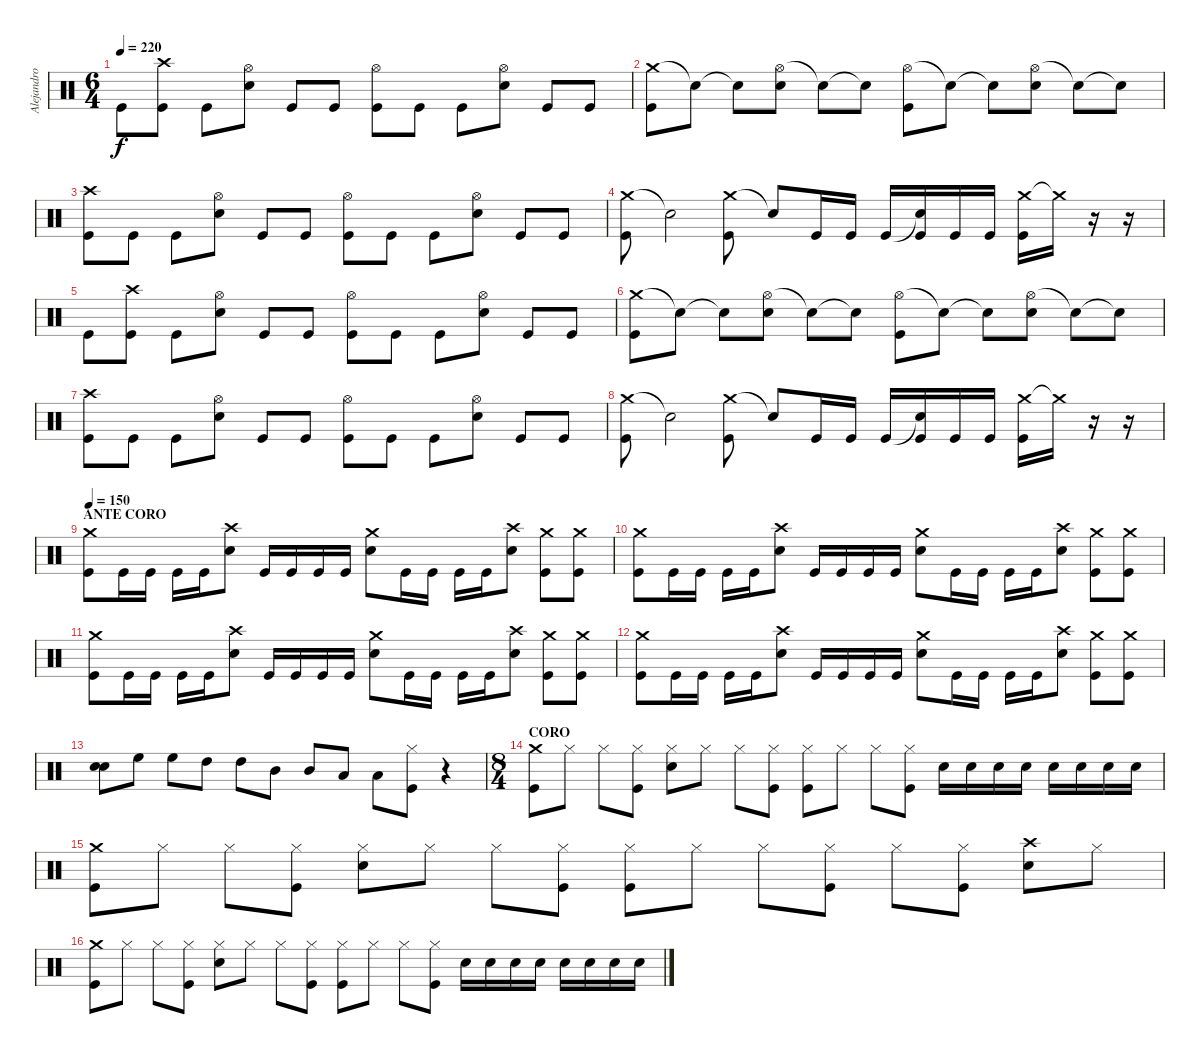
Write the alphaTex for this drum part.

\track ("Alejandro M. (Bateria)" "Alejandro ") {instrument percussion}
\staff {score}
\articulation defaults
\ts (6 4)
\tempo 220
\clef neutral
\ks c "Kick (hit)".8{dy f}
("Crash high (hit)" "Kick (hit)").8 "Kick (hit)".8 ("Hi-Hat (open)" "Snare (hit) 2").8 "Kick (hit)".8 "Kick (hit)".8 ("Hi-Hat (open)" "Kick (hit)").8 "Kick (hit)".8 "Kick (hit)".8 ("Hi-Hat (open)" "Snare (hit) 2").8 "Kick (hit)".8 "Kick (hit)".8 |
("Crash medium (hit)" "Kick (hit)").8 "Snare (hit)"{t}.8 "Snare (hit)"{t}.8 ("Hi-Hat (open)" "Snare (hit) 2").8 "Snare (hit)"{t}.8 "Snare (hit)"{t}.8 ("Hi-Hat (open)" "Kick (hit)").8 "Snare (hit)"{t}.8 "Snare (hit)"{t}.8 ("Hi-Hat (open)" "Snare (hit) 2").8 "Snare (hit)"{t}.8 "Snare (hit)"{t}.8 |
("Crash high (hit)" "Kick (hit)").8 "Kick (hit)".8 "Kick (hit)".8 ("Hi-Hat (open)" "Snare (hit) 2").8 "Kick (hit)".8 "Kick (hit)".8 ("Hi-Hat (open)" "Kick (hit)").8 "Kick (hit)".8 "Kick (hit)".8 ("Hi-Hat (open)" "Snare (hit) 2").8 "Kick (hit)".8 "Kick (hit)".8 |
("Crash medium (hit)" "Kick (hit)").8 "Snare (hit)"{t}.2 ("Crash medium (hit)" "Kick (hit)").8 "Snare (hit)"{t}.8 "Kick (hit)".16 "Kick (hit)".16 "Kick (hit)".16 ("Snare (hit)"{t} "Kick (hit)").16 "Kick (hit)".16 "Kick (hit)".16 ("Crash medium (hit)" "Kick (hit)").16 "Crash medium (hit)"{t}.16 r.16 r.16 |
"Kick (hit)".8 ("Crash high (hit)" "Kick (hit)").8 "Kick (hit)".8 ("Hi-Hat (open)" "Snare (hit) 2").8 "Kick (hit)".8 "Kick (hit)".8 ("Hi-Hat (open)" "Kick (hit)").8 "Kick (hit)".8 "Kick (hit)".8 ("Hi-Hat (open)" "Snare (hit) 2").8 "Kick (hit)".8 "Kick (hit)".8 |
("Crash medium (hit)" "Kick (hit)").8 "Snare (hit)"{t}.8 "Snare (hit)"{t}.8 ("Hi-Hat (open)" "Snare (hit) 2").8 "Snare (hit)"{t}.8 "Snare (hit)"{t}.8 ("Hi-Hat (open)" "Kick (hit)").8 "Snare (hit)"{t}.8 "Snare (hit)"{t}.8 ("Hi-Hat (open)" "Snare (hit) 2").8 "Snare (hit)"{t}.8 "Snare (hit)"{t}.8 |
("Crash high (hit)" "Kick (hit)").8 "Kick (hit)".8 "Kick (hit)".8 ("Hi-Hat (open)" "Snare (hit) 2").8 "Kick (hit)".8 "Kick (hit)".8 ("Hi-Hat (open)" "Kick (hit)").8 "Kick (hit)".8 "Kick (hit)".8 ("Hi-Hat (open)" "Snare (hit) 2").8 "Kick (hit)".8 "Kick (hit)".8 |
("Crash medium (hit)" "Kick (hit)").8 "Snare (hit)"{t}.2 ("Crash medium (hit)" "Kick (hit)").8 "Snare (hit)"{t}.8 "Kick (hit)".16 "Kick (hit)".16 "Kick (hit)".16 ("Snare (hit)"{t} "Kick (hit)").16 "Kick (hit)".16 "Kick (hit)".16 ("Crash medium (hit)" "Kick (hit)").16 "Crash medium (hit)"{t}.16 r.16 r.16 |
\section ("" "ANTE CORO")
\tempo 150
("Crash medium (hit)" "Kick (hit)").8 "Kick (hit)".16 "Kick (hit)".16 "Kick (hit)".16 "Kick (hit)".16 ("Crash high (hit)" "Snare (hit) 2").8 "Kick (hit)".16 "Kick (hit)".16 "Kick (hit)".16 "Kick (hit)".16 ("Crash medium (hit)" "Snare (hit) 2").8 "Kick (hit)".16 "Kick (hit)".16 "Kick (hit)".16 "Kick (hit)".16 ("Crash high (hit)" "Snare (hit) 2").8 ("Crash medium (hit)" "Kick (hit)").8 ("Crash medium (hit)" "Kick (hit)").8 |
("Crash medium (hit)" "Kick (hit)").8 "Kick (hit)".16 "Kick (hit)".16 "Kick (hit)".16 "Kick (hit)".16 ("Crash high (hit)" "Snare (hit) 2").8 "Kick (hit)".16 "Kick (hit)".16 "Kick (hit)".16 "Kick (hit)".16 ("Crash medium (hit)" "Snare (hit) 2").8 "Kick (hit)".16 "Kick (hit)".16 "Kick (hit)".16 "Kick (hit)".16 ("Crash high (hit)" "Snare (hit) 2").8 ("Crash medium (hit)" "Kick (hit)").8 ("Crash medium (hit)" "Kick (hit)").8 |
("Crash medium (hit)" "Kick (hit)").8 "Kick (hit)".16 "Kick (hit)".16 "Kick (hit)".16 "Kick (hit)".16 ("Crash high (hit)" "Snare (hit) 2").8 "Kick (hit)".16 "Kick (hit)".16 "Kick (hit)".16 "Kick (hit)".16 ("Crash medium (hit)" "Snare (hit) 2").8 "Kick (hit)".16 "Kick (hit)".16 "Kick (hit)".16 "Kick (hit)".16 ("Crash high (hit)" "Snare (hit) 2").8 ("Crash medium (hit)" "Kick (hit)").8 ("Crash medium (hit)" "Kick (hit)").8 |
("Crash medium (hit)" "Kick (hit)").8 "Kick (hit)".16 "Kick (hit)".16 "Kick (hit)".16 "Kick (hit)".16 ("Crash high (hit)" "Snare (hit) 2").8 "Kick (hit)".16 "Kick (hit)".16 "Kick (hit)".16 "Kick (hit)".16 ("Crash medium (hit)" "Snare (hit) 2").8 "Kick (hit)".16 "Kick (hit)".16 "Kick (hit)".16 "Kick (hit)".16 ("Crash high (hit)" "Snare (hit) 2").8 ("Crash medium (hit)" "Kick (hit)").8 ("Crash medium (hit)" "Kick (hit)").8 |
("Snare (hit) 2" "Snare (hit) 2").8 "High Floor Tom (hit)".8 "High Floor Tom (hit)".8 "High Tom (hit)".8 "High Tom (hit)".8 "Mid Tom (hit)".8 "Mid Tom (hit)".8 "Low Tom (hit)".8 "Low Tom (hit)".8 ("Hi-Hat (closed)" "Kick (hit)").8 r.4 |
\ts (8 4)
\section ("" "CORO")
("Crash medium (hit)" "Kick (hit)").8 "Hi-Hat (closed)".8 "Hi-Hat (closed)".8 ("Hi-Hat (closed)" "Kick (hit)").8 ("Hi-Hat (closed)" "Snare (hit) 2").8 "Hi-Hat (closed)".8 "Hi-Hat (closed)".8 ("Hi-Hat (closed)" "Kick (hit)").8 ("Hi-Hat (closed)" "Kick (hit)").8 "Hi-Hat (closed)".8 "Hi-Hat (closed)".8 ("Hi-Hat (closed)" "Kick (hit)").8 "Snare (hit) 2".16 "Snare (hit) 2".16 "Snare (hit) 2".16 "Snare (hit) 2".16 "Snare (hit) 2".16 "Snare (hit) 2".16 "Snare (hit) 2".16 "Snare (hit) 2".16 |
("Crash medium (hit)" "Kick (hit)").8 "Hi-Hat (closed)".8 "Hi-Hat (closed)".8 ("Hi-Hat (closed)" "Kick (hit)").8 ("Hi-Hat (closed)" "Snare (hit) 2").8 "Hi-Hat (closed)".8 "Hi-Hat (closed)".8 ("Hi-Hat (closed)" "Kick (hit)").8 ("Hi-Hat (closed)" "Kick (hit)").8 "Hi-Hat (closed)".8 "Hi-Hat (closed)".8 ("Hi-Hat (closed)" "Kick (hit)").8 "Hi-Hat (closed)".8 ("Hi-Hat (closed)" "Kick (hit)").8 ("Crash high (hit)" "Snare (hit) 2").8 "Hi-Hat (closed)".8 |
("Crash medium (hit)" "Kick (hit)").8 "Hi-Hat (closed)".8 "Hi-Hat (closed)".8 ("Hi-Hat (closed)" "Kick (hit)").8 ("Hi-Hat (closed)" "Snare (hit) 2").8 "Hi-Hat (closed)".8 "Hi-Hat (closed)".8 ("Hi-Hat (closed)" "Kick (hit)").8 ("Hi-Hat (closed)" "Kick (hit)").8 "Hi-Hat (closed)".8 "Hi-Hat (closed)".8 ("Hi-Hat (closed)" "Kick (hit)").8 "Snare (hit) 2".16 "Snare (hit) 2".16 "Snare (hit) 2".16 "Snare (hit) 2".16 "Snare (hit) 2".16 "Snare (hit) 2".16 "Snare (hit) 2".16 "Snare (hit) 2".16
